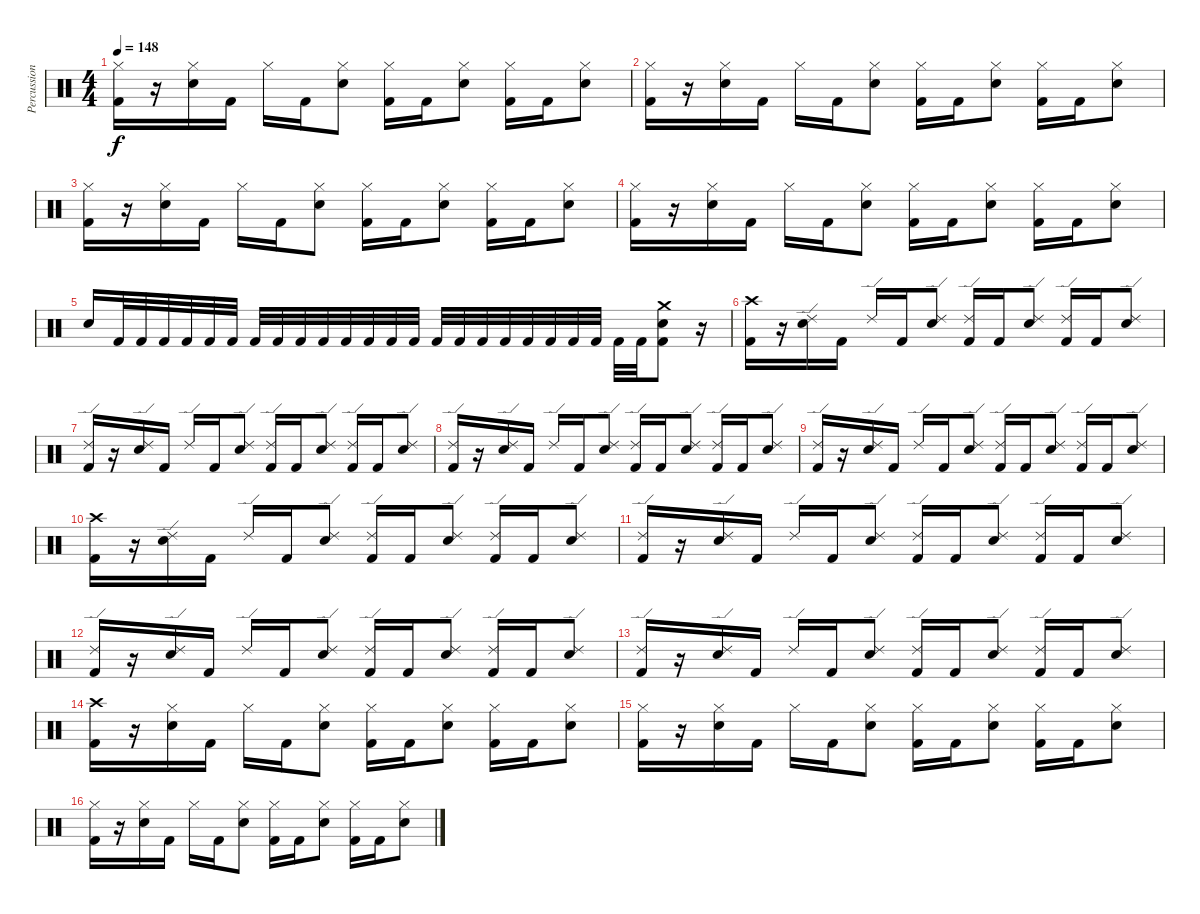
\track ("Percussion" "Percussion") {instrument percussion}
\staff {score}
\articulation defaults
\ts (4 4)
\tempo 148
\clef neutral
\ks c
("Hi-Hat (closed)" "Kick (hit) 2").16{dy f} r.16 ("Hi-Hat (closed)" "Snare (hit) 2").16 "Kick (hit) 2".16 "Hi-Hat (closed)".16 "Kick (hit) 2".16 ("Hi-Hat (closed)" "Snare (hit) 2").8 ("Hi-Hat (closed)" "Kick (hit) 2").16 "Kick (hit) 2".16 ("Hi-Hat (closed)" "Snare (hit) 2").8 ("Hi-Hat (closed)" "Kick (hit) 2").16 "Kick (hit) 2".16 ("Hi-Hat (closed)" "Snare (hit) 2").8 |
("Hi-Hat (closed)" "Kick (hit) 2").16 r.16 ("Hi-Hat (closed)" "Snare (hit) 2").16 "Kick (hit) 2".16 "Hi-Hat (closed)".16 "Kick (hit) 2".16 ("Hi-Hat (closed)" "Snare (hit) 2").8 ("Hi-Hat (closed)" "Kick (hit) 2").16 "Kick (hit) 2".16 ("Hi-Hat (closed)" "Snare (hit) 2").8 ("Hi-Hat (closed)" "Kick (hit) 2").16 "Kick (hit) 2".16 ("Hi-Hat (closed)" "Snare (hit) 2").8 |
("Hi-Hat (closed)" "Kick (hit) 2").16 r.16 ("Hi-Hat (closed)" "Snare (hit) 2").16 "Kick (hit) 2".16 "Hi-Hat (closed)".16 "Kick (hit) 2".16 ("Hi-Hat (closed)" "Snare (hit) 2").8 ("Hi-Hat (closed)" "Kick (hit) 2").16 "Kick (hit) 2".16 ("Hi-Hat (closed)" "Snare (hit) 2").8 ("Hi-Hat (closed)" "Kick (hit) 2").16 "Kick (hit) 2".16 ("Hi-Hat (closed)" "Snare (hit) 2").8 |
("Hi-Hat (closed)" "Kick (hit) 2").16 r.16 ("Hi-Hat (closed)" "Snare (hit) 2").16 "Kick (hit) 2".16 "Hi-Hat (closed)".16 "Kick (hit) 2".16 ("Hi-Hat (closed)" "Snare (hit) 2").8 ("Hi-Hat (closed)" "Kick (hit) 2").16 "Kick (hit) 2".16 ("Hi-Hat (closed)" "Snare (hit) 2").8 ("Hi-Hat (closed)" "Kick (hit) 2").16 "Kick (hit) 2".16 ("Hi-Hat (closed)" "Snare (hit) 2").8 |
"Snare (hit) 2".16 "Kick (hit) 2".32 "Kick (hit) 2".32 "Kick (hit) 2".32 "Kick (hit) 2".32 "Kick (hit) 2".32 "Kick (hit) 2".32 "Kick (hit) 2".32 "Kick (hit) 2".32 "Kick (hit) 2".32 "Kick (hit) 2".32 "Kick (hit) 2".32 "Kick (hit) 2".32 "Kick (hit) 2".32 "Kick (hit) 2".32 "Kick (hit) 2".32 "Kick (hit) 2".32 "Kick (hit) 2".32 "Kick (hit) 2".32 "Kick (hit) 2".32 "Kick (hit) 2".32 "Kick (hit) 2".32 "Kick (hit) 2".32 "Kick (hit) 2".32 "Kick (hit) 2".32 ("Crash medium (hit)" "Snare (hit) 2" "Kick (hit) 2").8 r.16 |
("Crash high (hit)" "Kick (hit) 2").16 r.16 ("Ride (edge) 2" "Snare (hit) 2").16 "Kick (hit) 2".16 "Ride (edge) 2".16 "Kick (hit) 2".16 ("Ride (edge) 2" "Snare (hit) 2").8 ("Ride (edge) 2" "Kick (hit) 2").16 "Kick (hit) 2".16 ("Ride (edge) 2" "Snare (hit) 2").8 ("Ride (edge) 2" "Kick (hit) 2").16 "Kick (hit) 2".16 ("Ride (edge) 2" "Snare (hit) 2").8 |
("Ride (edge) 2" "Kick (hit) 2").16 r.16 ("Ride (edge) 2" "Snare (hit) 2").16 "Kick (hit) 2".16 "Ride (edge) 2".16 "Kick (hit) 2".16 ("Ride (edge) 2" "Snare (hit) 2").8 ("Ride (edge) 2" "Kick (hit) 2").16 "Kick (hit) 2".16 ("Ride (edge) 2" "Snare (hit) 2").8 ("Ride (edge) 2" "Kick (hit) 2").16 "Kick (hit) 2".16 ("Ride (edge) 2" "Snare (hit) 2").8 |
("Ride (edge) 2" "Kick (hit) 2").16 r.16 ("Ride (edge) 2" "Snare (hit) 2").16 "Kick (hit) 2".16 "Ride (edge) 2".16 "Kick (hit) 2".16 ("Ride (edge) 2" "Snare (hit) 2").8 ("Ride (edge) 2" "Kick (hit) 2").16 "Kick (hit) 2".16 ("Ride (edge) 2" "Snare (hit) 2").8 ("Ride (edge) 2" "Kick (hit) 2").16 "Kick (hit) 2".16 ("Ride (edge) 2" "Snare (hit) 2").8 |
("Ride (edge) 2" "Kick (hit) 2").16 r.16 ("Ride (edge) 2" "Snare (hit) 2").16 "Kick (hit) 2".16 "Ride (edge) 2".16 "Kick (hit) 2".16 ("Ride (edge) 2" "Snare (hit) 2").8 ("Ride (edge) 2" "Kick (hit) 2").16 "Kick (hit) 2".16 ("Ride (edge) 2" "Snare (hit) 2").8 ("Ride (edge) 2" "Kick (hit) 2").16 "Kick (hit) 2".16 ("Ride (edge) 2" "Snare (hit) 2").8 |
("Crash high (hit)" "Kick (hit) 2").16 r.16 ("Ride (edge) 2" "Snare (hit) 2").16 "Kick (hit) 2".16 "Ride (edge) 2".16 "Kick (hit) 2".16 ("Ride (edge) 2" "Snare (hit) 2").8 ("Ride (edge) 2" "Kick (hit) 2").16 "Kick (hit) 2".16 ("Ride (edge) 2" "Snare (hit) 2").8 ("Ride (edge) 2" "Kick (hit) 2").16 "Kick (hit) 2".16 ("Ride (edge) 2" "Snare (hit) 2").8 |
("Ride (edge) 2" "Kick (hit) 2").16 r.16 ("Ride (edge) 2" "Snare (hit) 2").16 "Kick (hit) 2".16 "Ride (edge) 2".16 "Kick (hit) 2".16 ("Ride (edge) 2" "Snare (hit) 2").8 ("Ride (edge) 2" "Kick (hit) 2").16 "Kick (hit) 2".16 ("Ride (edge) 2" "Snare (hit) 2").8 ("Ride (edge) 2" "Kick (hit) 2").16 "Kick (hit) 2".16 ("Ride (edge) 2" "Snare (hit) 2").8 |
("Ride (edge) 2" "Kick (hit) 2").16 r.16 ("Ride (edge) 2" "Snare (hit) 2").16 "Kick (hit) 2".16 "Ride (edge) 2".16 "Kick (hit) 2".16 ("Ride (edge) 2" "Snare (hit) 2").8 ("Ride (edge) 2" "Kick (hit) 2").16 "Kick (hit) 2".16 ("Ride (edge) 2" "Snare (hit) 2").8 ("Ride (edge) 2" "Kick (hit) 2").16 "Kick (hit) 2".16 ("Ride (edge) 2" "Snare (hit) 2").8 |
("Ride (edge) 2" "Kick (hit) 2").16 r.16 ("Ride (edge) 2" "Snare (hit) 2").16 "Kick (hit) 2".16 "Ride (edge) 2".16 "Kick (hit) 2".16 ("Ride (edge) 2" "Snare (hit) 2").8 ("Ride (edge) 2" "Kick (hit) 2").16 "Kick (hit) 2".16 ("Ride (edge) 2" "Snare (hit) 2").8 ("Ride (edge) 2" "Kick (hit) 2").16 "Kick (hit) 2".16 ("Ride (edge) 2" "Snare (hit) 2").8 |
("Crash high (hit)" "Kick (hit) 2").16 r.16 ("Hi-Hat (closed)" "Snare (hit) 2").16 "Kick (hit) 2".16 "Hi-Hat (closed)".16 "Kick (hit) 2".16 ("Hi-Hat (closed)" "Snare (hit) 2").8 ("Hi-Hat (closed)" "Kick (hit) 2").16 "Kick (hit) 2".16 ("Hi-Hat (closed)" "Snare (hit) 2").8 ("Hi-Hat (closed)" "Kick (hit) 2").16 "Kick (hit) 2".16 ("Hi-Hat (closed)" "Snare (hit) 2").8 |
("Hi-Hat (closed)" "Kick (hit) 2").16 r.16 ("Hi-Hat (closed)" "Snare (hit) 2").16 "Kick (hit) 2".16 "Hi-Hat (closed)".16 "Kick (hit) 2".16 ("Hi-Hat (closed)" "Snare (hit) 2").8 ("Hi-Hat (closed)" "Kick (hit) 2").16 "Kick (hit) 2".16 ("Hi-Hat (closed)" "Snare (hit) 2").8 ("Hi-Hat (closed)" "Kick (hit) 2").16 "Kick (hit) 2".16 ("Hi-Hat (closed)" "Snare (hit) 2").8 |
("Hi-Hat (closed)" "Kick (hit) 2").16 r.16 ("Hi-Hat (closed)" "Snare (hit) 2").16 "Kick (hit) 2".16 "Hi-Hat (closed)".16 "Kick (hit) 2".16 ("Hi-Hat (closed)" "Snare (hit) 2").8 ("Hi-Hat (closed)" "Kick (hit) 2").16 "Kick (hit) 2".16 ("Hi-Hat (closed)" "Snare (hit) 2").8 ("Hi-Hat (closed)" "Kick (hit) 2").16 "Kick (hit) 2".16 ("Hi-Hat (closed)" "Snare (hit) 2").8
